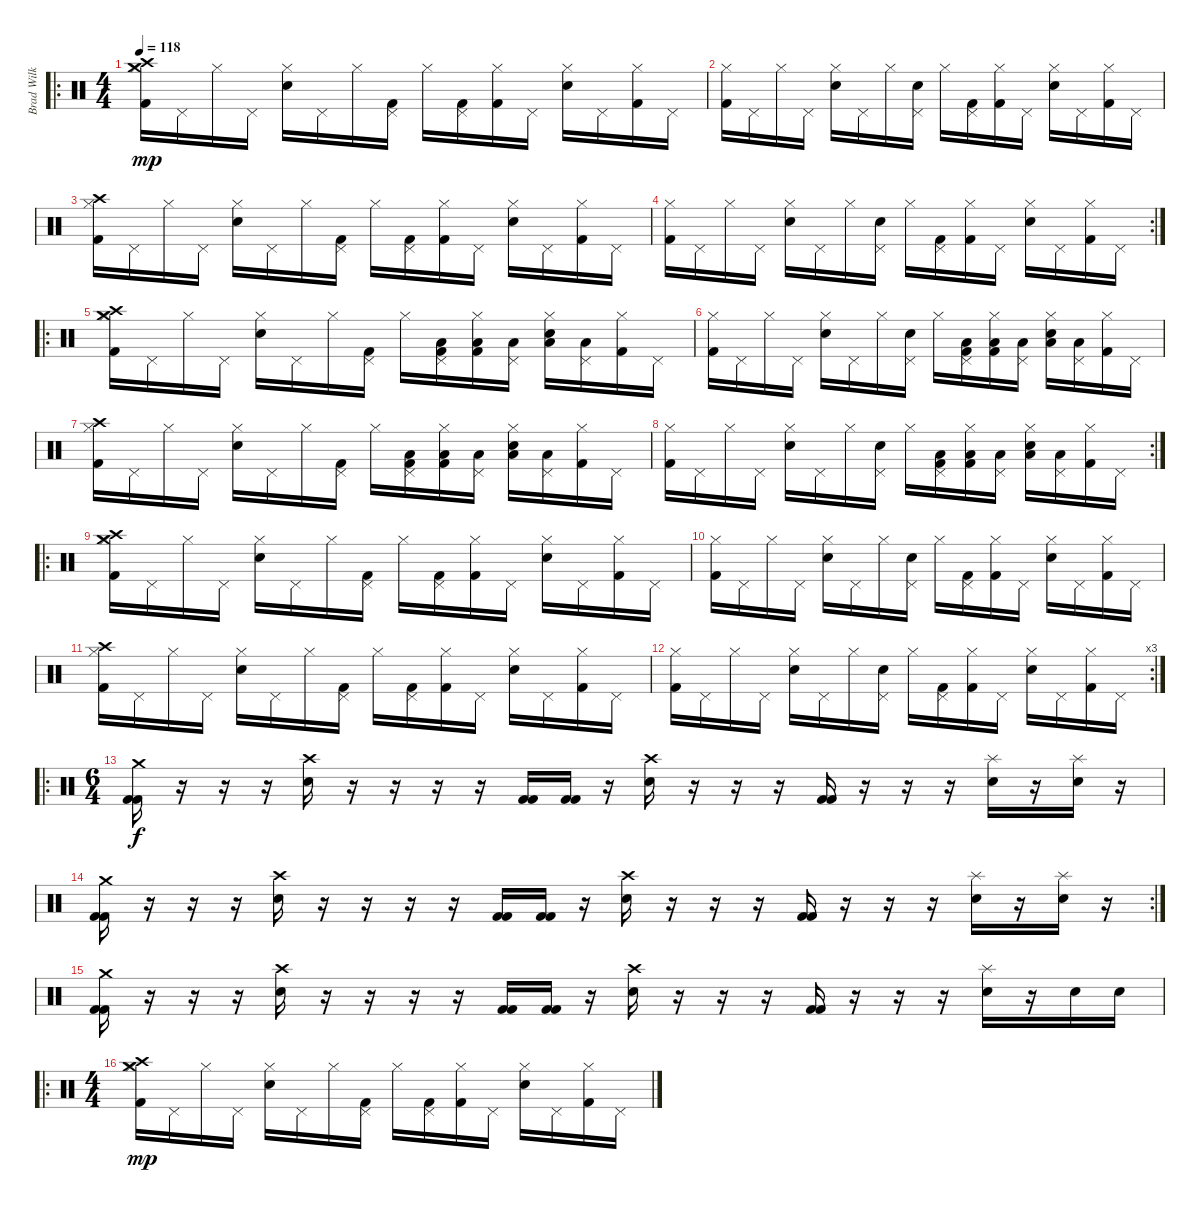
\track ("Brad Wilk - Drums" "Brad Wilk ") {instrument percussion}
\staff {score}
\articulation defaults
\ro
\ts (4 4)
\tempo 118
\clef neutral
\ks c
("Kick (hit) 2" "Crash medium (hit)" "Crash high (hit)" "Hi-Hat (closed)").16{dy mp} "Pedal Hi-Hat (hit)".16 "Hi-Hat (closed)".16 "Pedal Hi-Hat (hit)".16 ("Electric Snare (hit)" "Hi-Hat (closed)").16 "Pedal Hi-Hat (hit)".16 "Hi-Hat (closed)".16 ("Kick (hit) 2" "Pedal Hi-Hat (hit)").16 "Hi-Hat (closed)".16 ("Kick (hit) 2" "Pedal Hi-Hat (hit)").16 ("Kick (hit) 2" "Hi-Hat (closed)").16 "Pedal Hi-Hat (hit)".16 ("Electric Snare (hit)" "Hi-Hat (closed)").16 "Pedal Hi-Hat (hit)".16 ("Kick (hit) 2" "Hi-Hat (closed)").16 "Pedal Hi-Hat (hit)".16 |
("Kick (hit) 2" "Hi-Hat (closed)").16 "Pedal Hi-Hat (hit)".16 "Hi-Hat (closed)".16 "Pedal Hi-Hat (hit)".16 ("Electric Snare (hit)" "Hi-Hat (closed)").16 "Pedal Hi-Hat (hit)".16 "Hi-Hat (closed)".16 ("Electric Snare (hit)" "Pedal Hi-Hat (hit)").16 "Hi-Hat (closed)".16 ("Kick (hit) 2" "Pedal Hi-Hat (hit)").16 ("Kick (hit) 2" "Hi-Hat (closed)").16 "Pedal Hi-Hat (hit)".16 ("Electric Snare (hit)" "Hi-Hat (closed)").16 "Pedal Hi-Hat (hit)".16 ("Kick (hit) 2" "Hi-Hat (closed)").16 "Pedal Hi-Hat (hit)".16 |
("Kick (hit) 2" "Crash high (hit)" "Hi-Hat (closed)").16 "Pedal Hi-Hat (hit)".16 "Hi-Hat (closed)".16 "Pedal Hi-Hat (hit)".16 ("Electric Snare (hit)" "Hi-Hat (closed)").16 "Pedal Hi-Hat (hit)".16 "Hi-Hat (closed)".16 ("Kick (hit) 2" "Pedal Hi-Hat (hit)").16 "Hi-Hat (closed)".16 ("Kick (hit) 2" "Pedal Hi-Hat (hit)").16 ("Kick (hit) 2" "Hi-Hat (closed)").16 "Pedal Hi-Hat (hit)".16 ("Electric Snare (hit)" "Hi-Hat (closed)").16 "Pedal Hi-Hat (hit)".16 ("Kick (hit) 2" "Hi-Hat (closed)").16 "Pedal Hi-Hat (hit)".16 |
\rc 2
("Kick (hit) 2" "Hi-Hat (closed)").16 "Pedal Hi-Hat (hit)".16 "Hi-Hat (closed)".16 "Pedal Hi-Hat (hit)".16 ("Electric Snare (hit)" "Hi-Hat (closed)").16 "Pedal Hi-Hat (hit)".16 "Hi-Hat (closed)".16 ("Electric Snare (hit)" "Pedal Hi-Hat (hit)").16 "Hi-Hat (closed)".16 ("Kick (hit) 2" "Pedal Hi-Hat (hit)").16 ("Kick (hit) 2" "Hi-Hat (closed)").16 "Pedal Hi-Hat (hit)".16 ("Electric Snare (hit)" "Hi-Hat (closed)").16 "Pedal Hi-Hat (hit)".16 ("Kick (hit) 2" "Hi-Hat (closed)").16 "Pedal Hi-Hat (hit)".16 |
\ro
("Kick (hit) 2" "Crash medium (hit)" "Crash high (hit)" "Hi-Hat (closed)").16 "Pedal Hi-Hat (hit)".16 "Hi-Hat (closed)".16 "Pedal Hi-Hat (hit)".16 ("Electric Snare (hit)" "Hi-Hat (closed)").16 "Pedal Hi-Hat (hit)".16 "Hi-Hat (closed)".16 ("Kick (hit) 2" "Pedal Hi-Hat (hit)").16 "Hi-Hat (closed)".16 ("Kick (hit) 2" "Low Tom (hit)" "Pedal Hi-Hat (hit)").16 ("Kick (hit) 2" "Low Tom (hit)" "Hi-Hat (closed)").16 ("Low Tom (hit)" "Pedal Hi-Hat (hit)").16 ("Electric Snare (hit)" "Low Tom (hit)" "Hi-Hat (closed)").16 ("Low Tom (hit)" "Pedal Hi-Hat (hit)").16 ("Kick (hit) 2" "Hi-Hat (closed)").16 "Pedal Hi-Hat (hit)".16 |
("Kick (hit) 2" "Hi-Hat (closed)").16 "Pedal Hi-Hat (hit)".16 "Hi-Hat (closed)".16 "Pedal Hi-Hat (hit)".16 ("Electric Snare (hit)" "Hi-Hat (closed)").16 "Pedal Hi-Hat (hit)".16 "Hi-Hat (closed)".16 ("Electric Snare (hit)" "Pedal Hi-Hat (hit)").16 "Hi-Hat (closed)".16 ("Kick (hit) 2" "Low Tom (hit)" "Pedal Hi-Hat (hit)").16 ("Kick (hit) 2" "Low Tom (hit)" "Hi-Hat (closed)").16 ("Low Tom (hit)" "Pedal Hi-Hat (hit)").16 ("Electric Snare (hit)" "Low Tom (hit)" "Hi-Hat (closed)").16 ("Low Tom (hit)" "Pedal Hi-Hat (hit)").16 ("Kick (hit) 2" "Hi-Hat (closed)").16 "Pedal Hi-Hat (hit)".16 |
("Kick (hit) 2" "Crash high (hit)" "Hi-Hat (closed)").16 "Pedal Hi-Hat (hit)".16 "Hi-Hat (closed)".16 "Pedal Hi-Hat (hit)".16 ("Electric Snare (hit)" "Hi-Hat (closed)").16 "Pedal Hi-Hat (hit)".16 "Hi-Hat (closed)".16 ("Kick (hit) 2" "Pedal Hi-Hat (hit)").16 "Hi-Hat (closed)".16 ("Kick (hit) 2" "Low Tom (hit)" "Pedal Hi-Hat (hit)").16 ("Kick (hit) 2" "Low Tom (hit)" "Hi-Hat (closed)").16 ("Low Tom (hit)" "Pedal Hi-Hat (hit)").16 ("Electric Snare (hit)" "Low Tom (hit)" "Hi-Hat (closed)").16 ("Low Tom (hit)" "Pedal Hi-Hat (hit)").16 ("Kick (hit) 2" "Hi-Hat (closed)").16 "Pedal Hi-Hat (hit)".16 |
\rc 2
("Kick (hit) 2" "Hi-Hat (closed)").16 "Pedal Hi-Hat (hit)".16 "Hi-Hat (closed)".16 "Pedal Hi-Hat (hit)".16 ("Electric Snare (hit)" "Hi-Hat (closed)").16 "Pedal Hi-Hat (hit)".16 "Hi-Hat (closed)".16 ("Electric Snare (hit)" "Pedal Hi-Hat (hit)").16 "Hi-Hat (closed)".16 ("Kick (hit) 2" "Low Tom (hit)" "Pedal Hi-Hat (hit)").16 ("Kick (hit) 2" "Low Tom (hit)" "Hi-Hat (closed)").16 ("Low Tom (hit)" "Pedal Hi-Hat (hit)").16 ("Electric Snare (hit)" "Low Tom (hit)" "Hi-Hat (closed)").16 ("Low Tom (hit)" "Pedal Hi-Hat (hit)").16 ("Kick (hit) 2" "Hi-Hat (closed)").16 "Pedal Hi-Hat (hit)".16 |
\ro
("Kick (hit) 2" "Crash medium (hit)" "Crash high (hit)" "Hi-Hat (closed)").16 "Pedal Hi-Hat (hit)".16 "Hi-Hat (closed)".16 "Pedal Hi-Hat (hit)".16 ("Electric Snare (hit)" "Hi-Hat (closed)").16 "Pedal Hi-Hat (hit)".16 "Hi-Hat (closed)".16 ("Kick (hit) 2" "Pedal Hi-Hat (hit)").16 "Hi-Hat (closed)".16 ("Kick (hit) 2" "Pedal Hi-Hat (hit)").16 ("Kick (hit) 2" "Hi-Hat (closed)").16 "Pedal Hi-Hat (hit)".16 ("Electric Snare (hit)" "Hi-Hat (closed)").16 "Pedal Hi-Hat (hit)".16 ("Kick (hit) 2" "Hi-Hat (closed)").16 "Pedal Hi-Hat (hit)".16 |
("Kick (hit) 2" "Hi-Hat (closed)").16 "Pedal Hi-Hat (hit)".16 "Hi-Hat (closed)".16 "Pedal Hi-Hat (hit)".16 ("Electric Snare (hit)" "Hi-Hat (closed)").16 "Pedal Hi-Hat (hit)".16 "Hi-Hat (closed)".16 ("Electric Snare (hit)" "Pedal Hi-Hat (hit)").16 "Hi-Hat (closed)".16 ("Kick (hit) 2" "Pedal Hi-Hat (hit)").16 ("Kick (hit) 2" "Hi-Hat (closed)").16 "Pedal Hi-Hat (hit)".16 ("Electric Snare (hit)" "Hi-Hat (closed)").16 "Pedal Hi-Hat (hit)".16 ("Kick (hit) 2" "Hi-Hat (closed)").16 "Pedal Hi-Hat (hit)".16 |
("Kick (hit) 2" "Crash high (hit)" "Hi-Hat (closed)").16 "Pedal Hi-Hat (hit)".16 "Hi-Hat (closed)".16 "Pedal Hi-Hat (hit)".16 ("Electric Snare (hit)" "Hi-Hat (closed)").16 "Pedal Hi-Hat (hit)".16 "Hi-Hat (closed)".16 ("Kick (hit) 2" "Pedal Hi-Hat (hit)").16 "Hi-Hat (closed)".16 ("Kick (hit) 2" "Pedal Hi-Hat (hit)").16 ("Kick (hit) 2" "Hi-Hat (closed)").16 "Pedal Hi-Hat (hit)".16 ("Electric Snare (hit)" "Hi-Hat (closed)").16 "Pedal Hi-Hat (hit)".16 ("Kick (hit) 2" "Hi-Hat (closed)").16 "Pedal Hi-Hat (hit)".16 |
\rc 3
("Kick (hit) 2" "Hi-Hat (closed)").16 "Pedal Hi-Hat (hit)".16 "Hi-Hat (closed)".16 "Pedal Hi-Hat (hit)".16 ("Electric Snare (hit)" "Hi-Hat (closed)").16 "Pedal Hi-Hat (hit)".16 "Hi-Hat (closed)".16 ("Electric Snare (hit)" "Pedal Hi-Hat (hit)").16 "Hi-Hat (closed)".16 ("Kick (hit) 2" "Pedal Hi-Hat (hit)").16 ("Kick (hit) 2" "Hi-Hat (closed)").16 "Pedal Hi-Hat (hit)".16 ("Electric Snare (hit)" "Hi-Hat (closed)").16 "Pedal Hi-Hat (hit)".16 ("Kick (hit) 2" "Hi-Hat (closed)").16 "Pedal Hi-Hat (hit)".16 |
\ro
\ts (6 4)
("Kick (hit) 2" "Kick (hit) 2" "Crash medium (hit)").16{dy f} r.16 r.16 r.16 ("Electric Snare (hit)" "Crash high (hit)").16 r.16 r.16 r.16 r.16 ("Kick (hit) 2" "Kick (hit) 2").16 ("Kick (hit) 2" "Kick (hit) 2").16 r.16 ("Electric Snare (hit)" "Crash high (hit)").16 r.16 r.16 r.16 ("Kick (hit) 2" "Kick (hit) 2").16 r.16 r.16 r.16 ("Electric Snare (hit)" "Splash (hit)").16 r.16 ("Electric Snare (hit)" "Splash (hit)").16 r.16 |
\rc 2
("Kick (hit) 2" "Kick (hit) 2" "Crash medium (hit)").16 r.16 r.16 r.16 ("Electric Snare (hit)" "Crash high (hit)").16 r.16 r.16 r.16 r.16 ("Kick (hit) 2" "Kick (hit) 2").16 ("Kick (hit) 2" "Kick (hit) 2").16 r.16 ("Electric Snare (hit)" "Crash high (hit)").16 r.16 r.16 r.16 ("Kick (hit) 2" "Kick (hit) 2").16 r.16 r.16 r.16 ("Electric Snare (hit)" "Splash (hit)").16 r.16 ("Electric Snare (hit)" "Splash (hit)").16 r.16 |
("Kick (hit) 2" "Kick (hit) 2" "Crash medium (hit)").16 r.16 r.16 r.16 ("Electric Snare (hit)" "Crash high (hit)").16 r.16 r.16 r.16 r.16 ("Kick (hit) 2" "Kick (hit) 2").16 ("Kick (hit) 2" "Kick (hit) 2").16 r.16 ("Electric Snare (hit)" "Crash high (hit)").16 r.16 r.16 r.16 ("Kick (hit) 2" "Kick (hit) 2").16 r.16 r.16 r.16 ("Electric Snare (hit)" "Splash (hit)").16 r.16 "Electric Snare (hit)".16 "Electric Snare (hit)".16 |
\ro
\ts (4 4)
("Kick (hit) 2" "Crash medium (hit)" "Crash high (hit)" "Hi-Hat (closed)").16{dy mp} "Pedal Hi-Hat (hit)".16 "Hi-Hat (closed)".16 "Pedal Hi-Hat (hit)".16 ("Electric Snare (hit)" "Hi-Hat (closed)").16 "Pedal Hi-Hat (hit)".16 "Hi-Hat (closed)".16 ("Kick (hit) 2" "Pedal Hi-Hat (hit)").16 "Hi-Hat (closed)".16 ("Kick (hit) 2" "Pedal Hi-Hat (hit)").16 ("Kick (hit) 2" "Hi-Hat (closed)").16 "Pedal Hi-Hat (hit)".16 ("Electric Snare (hit)" "Hi-Hat (closed)").16 "Pedal Hi-Hat (hit)".16 ("Kick (hit) 2" "Hi-Hat (closed)").16 "Pedal Hi-Hat (hit)".16
